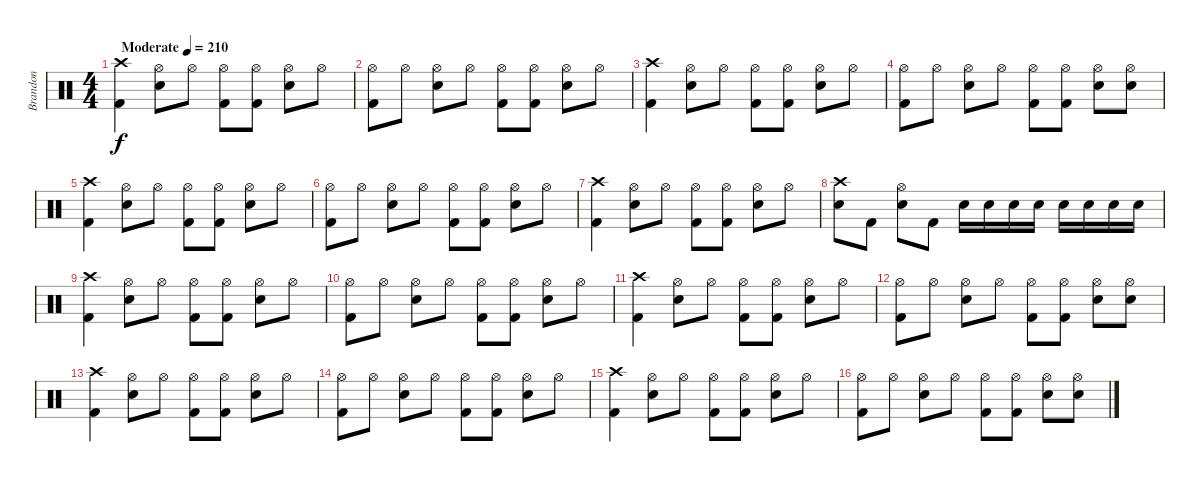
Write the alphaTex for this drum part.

\track ("Brandon" "Brandon") {instrument percussion}
\staff {score}
\articulation defaults
\ts (4 4)
\tempo (210 "Moderate")
\clef neutral
\ks c
("Crash high (hit)" "Kick (hit) 2").4{dy f} ("Snare (hit) 2" "Hi-Hat (open)").8 "Hi-Hat (open)".8 ("Kick (hit) 2" "Hi-Hat (open)").8 ("Kick (hit) 2" "Hi-Hat (open)").8 ("Snare (hit) 2" "Hi-Hat (open)").8 "Hi-Hat (open)".8 |
("Hi-Hat (open)" "Kick (hit) 2").8 "Hi-Hat (open)".8 ("Snare (hit) 2" "Hi-Hat (open)").8 "Hi-Hat (open)".8 ("Kick (hit) 2" "Hi-Hat (open)").8 ("Kick (hit) 2" "Hi-Hat (open)").8 ("Snare (hit) 2" "Hi-Hat (open)").8 "Hi-Hat (open)".8 |
("Crash high (hit)" "Kick (hit) 2").4 ("Snare (hit) 2" "Hi-Hat (open)").8 "Hi-Hat (open)".8 ("Kick (hit) 2" "Hi-Hat (open)").8 ("Kick (hit) 2" "Hi-Hat (open)").8 ("Snare (hit) 2" "Hi-Hat (open)").8 "Hi-Hat (open)".8 |
("Hi-Hat (open)" "Kick (hit) 2").8 "Hi-Hat (open)".8 ("Snare (hit) 2" "Hi-Hat (open)").8 "Hi-Hat (open)".8 ("Kick (hit) 2" "Hi-Hat (open)").8 ("Kick (hit) 2" "Hi-Hat (open)").8 ("Snare (hit) 2" "Hi-Hat (open)").8 ("Hi-Hat (open)" "Snare (hit) 2").8 |
("Crash high (hit)" "Kick (hit) 2").4 ("Snare (hit) 2" "Hi-Hat (open)").8 "Hi-Hat (open)".8 ("Kick (hit) 2" "Hi-Hat (open)").8 ("Kick (hit) 2" "Hi-Hat (open)").8 ("Snare (hit) 2" "Hi-Hat (open)").8 "Hi-Hat (open)".8 |
("Hi-Hat (open)" "Kick (hit) 2").8 "Hi-Hat (open)".8 ("Snare (hit) 2" "Hi-Hat (open)").8 "Hi-Hat (open)".8 ("Kick (hit) 2" "Hi-Hat (open)").8 ("Kick (hit) 2" "Hi-Hat (open)").8 ("Snare (hit) 2" "Hi-Hat (open)").8 "Hi-Hat (open)".8 |
("Crash high (hit)" "Kick (hit) 2").4 ("Snare (hit) 2" "Hi-Hat (open)").8 "Hi-Hat (open)".8 ("Kick (hit) 2" "Hi-Hat (open)").8 ("Kick (hit) 2" "Hi-Hat (open)").8 ("Snare (hit) 2" "Hi-Hat (open)").8 "Hi-Hat (open)".8 |
("Crash high (hit)" "Snare (hit) 2").8 "Kick (hit) 2".8 ("Snare (hit) 2" "Hi-Hat (open)").8 "Kick (hit) 2".8 "Snare (hit) 2".16 "Snare (hit) 2".16 "Snare (hit) 2".16 "Snare (hit) 2".16 "Snare (hit) 2".16 "Snare (hit) 2".16 "Snare (hit) 2".16 "Snare (hit) 2".16 |
("Crash high (hit)" "Kick (hit) 2").4 ("Snare (hit) 2" "Hi-Hat (open)").8 "Hi-Hat (open)".8 ("Kick (hit) 2" "Hi-Hat (open)").8 ("Kick (hit) 2" "Hi-Hat (open)").8 ("Snare (hit) 2" "Hi-Hat (open)").8 "Hi-Hat (open)".8 |
("Hi-Hat (open)" "Kick (hit) 2").8 "Hi-Hat (open)".8 ("Snare (hit) 2" "Hi-Hat (open)").8 "Hi-Hat (open)".8 ("Kick (hit) 2" "Hi-Hat (open)").8 ("Kick (hit) 2" "Hi-Hat (open)").8 ("Snare (hit) 2" "Hi-Hat (open)").8 "Hi-Hat (open)".8 |
("Crash high (hit)" "Kick (hit) 2").4 ("Snare (hit) 2" "Hi-Hat (open)").8 "Hi-Hat (open)".8 ("Kick (hit) 2" "Hi-Hat (open)").8 ("Kick (hit) 2" "Hi-Hat (open)").8 ("Snare (hit) 2" "Hi-Hat (open)").8 "Hi-Hat (open)".8 |
("Hi-Hat (open)" "Kick (hit) 2").8 "Hi-Hat (open)".8 ("Snare (hit) 2" "Hi-Hat (open)").8 "Hi-Hat (open)".8 ("Kick (hit) 2" "Hi-Hat (open)").8 ("Kick (hit) 2" "Hi-Hat (open)").8 ("Snare (hit) 2" "Hi-Hat (open)").8 ("Hi-Hat (open)" "Snare (hit) 2").8 |
("Crash high (hit)" "Kick (hit) 2").4 ("Snare (hit) 2" "Hi-Hat (open)").8 "Hi-Hat (open)".8 ("Kick (hit) 2" "Hi-Hat (open)").8 ("Kick (hit) 2" "Hi-Hat (open)").8 ("Snare (hit) 2" "Hi-Hat (open)").8 "Hi-Hat (open)".8 |
("Hi-Hat (open)" "Kick (hit) 2").8 "Hi-Hat (open)".8 ("Snare (hit) 2" "Hi-Hat (open)").8 "Hi-Hat (open)".8 ("Kick (hit) 2" "Hi-Hat (open)").8 ("Kick (hit) 2" "Hi-Hat (open)").8 ("Snare (hit) 2" "Hi-Hat (open)").8 "Hi-Hat (open)".8 |
("Crash high (hit)" "Kick (hit) 2").4 ("Snare (hit) 2" "Hi-Hat (open)").8 "Hi-Hat (open)".8 ("Kick (hit) 2" "Hi-Hat (open)").8 ("Kick (hit) 2" "Hi-Hat (open)").8 ("Snare (hit) 2" "Hi-Hat (open)").8 "Hi-Hat (open)".8 |
("Hi-Hat (open)" "Kick (hit) 2").8 "Hi-Hat (open)".8 ("Snare (hit) 2" "Hi-Hat (open)").8 "Hi-Hat (open)".8 ("Kick (hit) 2" "Hi-Hat (open)").8 ("Kick (hit) 2" "Hi-Hat (open)").8 ("Snare (hit) 2" "Hi-Hat (open)").8 ("Hi-Hat (open)" "Snare (hit) 2").8
